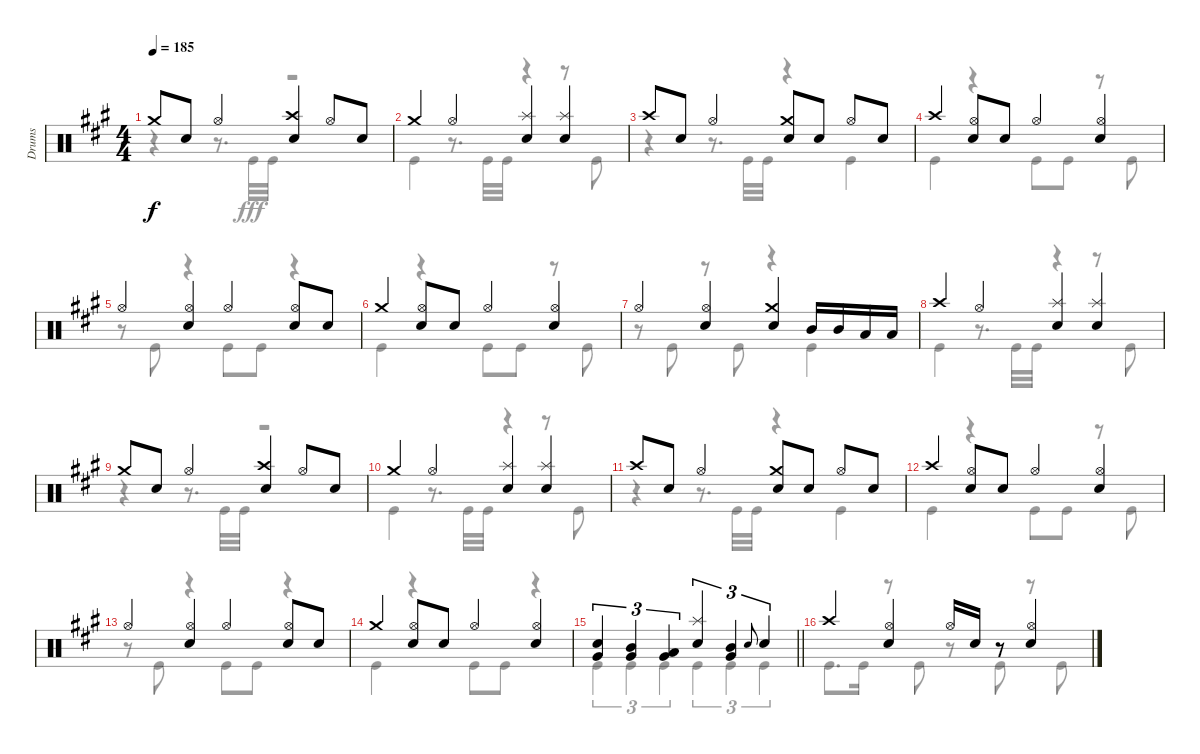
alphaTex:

\track ("Drums" "Drums") {instrument percussion}
\staff {score}
\articulation defaults
\voice
\ts (4 4)
\tempo 185
\clef neutral
\ks a "Crash medium (hit)".8{dy f} "Snare (hit) 2".8 "Hi-Hat (open)".4
("Crash high (hit)" "Snare (hit) 2").4 "Hi-Hat (open)".8 "Snare (hit) 2".8 |
"Crash medium (hit)".4 "Hi-Hat (open)".4 ("Splash (hit)" "Snare (hit) 2").4 ("Splash (hit)" "Snare (hit) 2").4 |
"Crash high (hit)".8 "Snare (hit) 2".8 "Hi-Hat (open)".4 ("Crash medium (hit)" "Snare (hit) 2").8 "Snare (hit) 2".8 "Hi-Hat (open)".8 "Snare (hit) 2".8 |
"Crash high (hit)".4 ("Hi-Hat (open)" "Snare (hit) 2").8 "Snare (hit) 2".8 "Hi-Hat (open)".4 ("Hi-Hat (open)" "Snare (hit) 2").4 |
"Hi-Hat (open)".4 ("Hi-Hat (open)" "Snare (hit) 2").4 "Hi-Hat (open)".4 ("Hi-Hat (open)" "Snare (hit) 2").8 "Snare (hit) 2".8 |
"Crash medium (hit)".4 ("Hi-Hat (open)" "Snare (hit) 2").8 "Snare (hit) 2".8 "Hi-Hat (open)".4 ("Hi-Hat (open)" "Snare (hit) 2").4 |
"Hi-Hat (open)".4 ("Hi-Hat (open)" "Snare (hit) 2").4 ("Crash medium (hit)" "Snare (hit) 2").4 "Mid Tom (hit)".16 "Mid Tom (hit)".16 "Low Tom (hit)".16 "Low Tom (hit)".16 |
"Crash high (hit)".4 "Hi-Hat (open)".4 ("Splash (hit)" "Snare (hit) 2").4 ("Splash (hit)" "Snare (hit) 2").4 |
"Crash medium (hit)".8 "Snare (hit) 2".8 "Hi-Hat (open)".4 ("Crash high (hit)" "Snare (hit) 2").4 "Hi-Hat (open)".8 "Snare (hit) 2".8 |
"Crash medium (hit)".4 "Hi-Hat (open)".4 ("Splash (hit)" "Snare (hit) 2").4 ("Splash (hit)" "Snare (hit) 2").4 |
"Crash high (hit)".8 "Snare (hit) 2".8 "Hi-Hat (open)".4 ("Crash medium (hit)" "Snare (hit) 2").8 "Snare (hit) 2".8 "Hi-Hat (open)".8 "Snare (hit) 2".8 |
"Crash high (hit)".4 ("Hi-Hat (open)" "Snare (hit) 2").8 "Snare (hit) 2".8 "Hi-Hat (open)".4 ("Hi-Hat (open)" "Snare (hit) 2").4 |
"Hi-Hat (open)".4 ("Hi-Hat (open)" "Snare (hit) 2").4 "Hi-Hat (open)".4 ("Hi-Hat (open)" "Snare (hit) 2").8 "Snare (hit) 2".8 |
"Crash medium (hit)".4 ("Hi-Hat (open)" "Snare (hit) 2").8 "Snare (hit) 2".8 "Hi-Hat (open)".4 ("Hi-Hat (open)" "Snare (hit) 2").4 |
\barLineRight lightlight
("Snare (hit) 2" "Very Low Tom (hit)").4{tu (3 2)} ("Mid Tom (hit)" "Very Low Tom (hit)").4{tu (3 2)} ("Low Tom (hit)" "Very Low Tom (hit)").4{tu (3 2)} ("Splash (hit)" "Snare (hit) 2").4{tu (3 2)} ("Mid Tom (hit)" "Very Low Tom (hit)").4{tu (3 2)} "Snare (hit) 2".8{gr onbeat} "Snare (hit) 2".4{tu (3 2)} |
"Crash high (hit)".4 ("Hi-Hat (open)" "Snare (hit) 2").4 "Hi-Hat (open)".16 "Snare (hit) 2".16 r.8 ("Hi-Hat (open)" "Snare (hit) 2").4
\voice
\clef neutral
\ottava regular
\simile none
\ks a
r.4{dy fff} r.8{d} "Kick (hit)".32 "Kick (hit)".32 r.2 |
"Kick (hit)".4 r.8{d} "Kick (hit)".32 "Kick (hit)".32 r.4 r.8 "Kick (hit)".8 |
r.4 r.8{d} "Kick (hit)".32 "Kick (hit)".32 r.4 "Kick (hit)".4 |
"Kick (hit)".4 r.4 "Kick (hit)".8 "Kick (hit)".8 r.8 "Kick (hit)".8 |
r.8 "Kick (hit)".8 r.4 "Kick (hit)".8 "Kick (hit)".8 r.4 |
"Kick (hit)".4 r.4 "Kick (hit)".8 "Kick (hit)".8 r.8 "Kick (hit)".8 |
r.8 "Kick (hit)".8 r.8 "Kick (hit)".8 r.4 "Kick (hit)".4 |
"Kick (hit)".4 r.8{d} "Kick (hit)".32 "Kick (hit)".32 r.4 r.8 "Kick (hit)".8 |
r.4 r.8{d} "Kick (hit)".32 "Kick (hit)".32 r.2 |
"Kick (hit)".4 r.8{d} "Kick (hit)".32 "Kick (hit)".32 r.4 r.8 "Kick (hit)".8 |
r.4 r.8{d} "Kick (hit)".32 "Kick (hit)".32 r.4 "Kick (hit)".4 |
"Kick (hit)".4 r.4 "Kick (hit)".8 "Kick (hit)".8 r.8 "Kick (hit)".8 |
r.8 "Kick (hit)".8 r.4 "Kick (hit)".8 "Kick (hit)".8 r.4 |
"Kick (hit)".4 r.4 "Kick (hit)".8 "Kick (hit)".8 r.4 |
\barLineRight lightlight "Kick (hit)".4{tu (3 2)} "Kick (hit)".4{tu (3 2)} "Kick (hit)".4{tu (3 2)} "Kick (hit)".4{tu (3 2)} "Kick (hit)".4{tu (3 2)} "Kick (hit)".4{tu (3 2)}
|
"Kick (hit)".8{d} "Kick (hit)".16 r.8 "Kick (hit)".8 r.8 "Kick (hit)".8 r.8 "Kick (hit)".8
